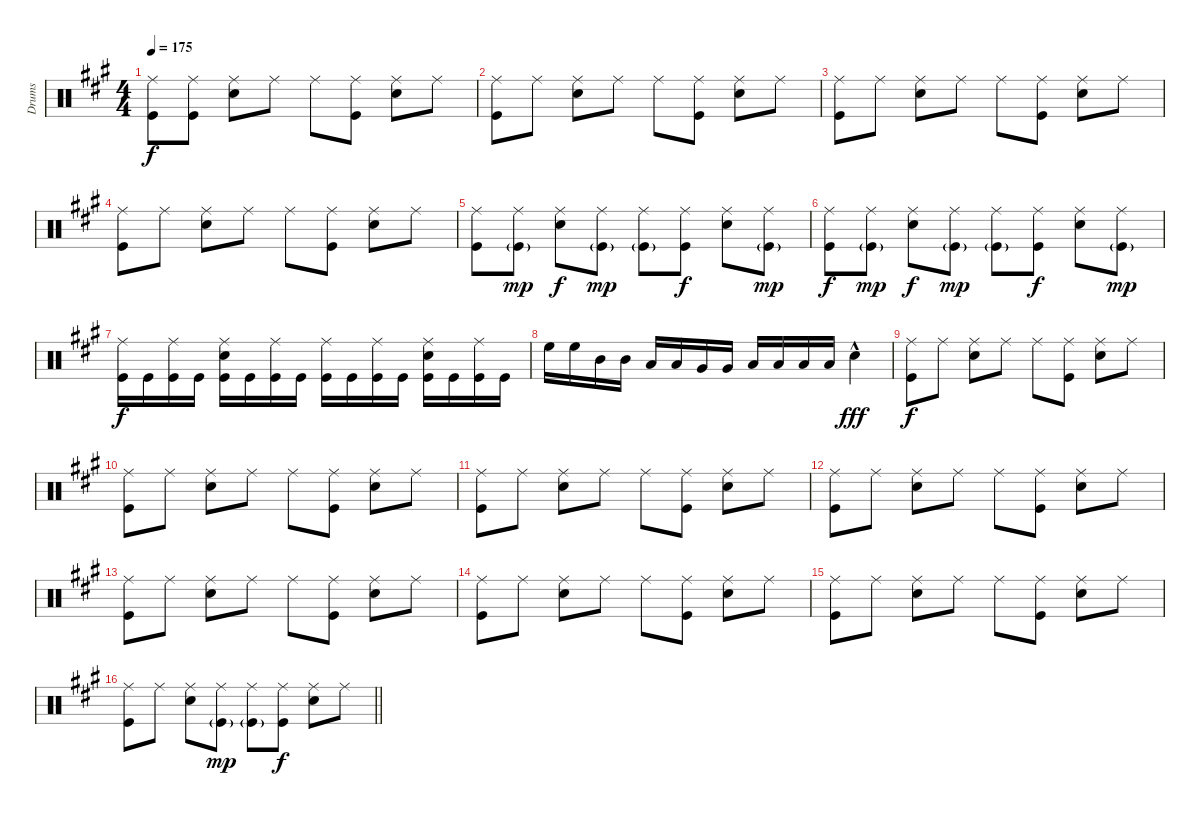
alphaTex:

\track ("Drums" "Drums") {instrument percussion}
\staff {score}
\articulation defaults
\ts (4 4)
\tempo 175
\clef neutral
\ks f#minor
("Ride (middle)" "Kick (hit)").8{dy f} ("Ride (middle)" "Kick (hit)").8 ("Ride (middle)" "Snare (hit) 2").8 "Ride (middle)".8 "Ride (middle)".8 ("Ride (middle)" "Kick (hit)").8 ("Ride (middle)" "Snare (hit) 2").8 "Ride (middle)".8 |
("Ride (middle)" "Kick (hit)").8 "Ride (middle)".8 ("Ride (middle)" "Snare (hit) 2").8 "Ride (middle)".8 "Ride (middle)".8 ("Ride (middle)" "Kick (hit)").8 ("Ride (middle)" "Snare (hit) 2").8 "Ride (middle)".8 |
("Ride (middle)" "Kick (hit)").8 "Ride (middle)".8 ("Ride (middle)" "Snare (hit) 2").8 "Ride (middle)".8 "Ride (middle)".8 ("Ride (middle)" "Kick (hit)").8 ("Ride (middle)" "Snare (hit) 2").8 "Ride (middle)".8 |
("Ride (middle)" "Kick (hit)").8 "Ride (middle)".8 ("Ride (middle)" "Snare (hit) 2").8 "Ride (middle)".8 "Ride (middle)".8 ("Ride (middle)" "Kick (hit)").8 ("Ride (middle)" "Snare (hit) 2").8 "Ride (middle)".8 |
("Ride (middle)" "Kick (hit)").8 ("Ride (middle)" "Kick (hit)"{g}).8{dy mp} ("Ride (middle)" "Snare (hit) 2").8{dy f} ("Ride (middle)" "Kick (hit)"{g}).8{dy mp} ("Ride (middle)" "Kick (hit)"{g}).8 ("Ride (middle)" "Kick (hit)").8{dy f} ("Ride (middle)" "Snare (hit) 2").8 ("Ride (middle)" "Kick (hit)"{g}).8{dy mp} |
("Ride (middle)" "Kick (hit)").8{dy f} ("Ride (middle)" "Kick (hit)"{g}).8{dy mp} ("Ride (middle)" "Snare (hit) 2").8{dy f} ("Ride (middle)" "Kick (hit)"{g}).8{dy mp} ("Ride (middle)" "Kick (hit)"{g}).8 ("Ride (middle)" "Kick (hit)").8{dy f} ("Ride (middle)" "Snare (hit) 2").8 ("Ride (middle)" "Kick (hit)"{g}).8{dy mp} |
("Ride (middle)" "Kick (hit)").16{dy f} "Kick (hit)".16 ("Ride (middle)" "Kick (hit)").16 "Kick (hit)".16 ("Ride (middle)" "Snare (hit) 2" "Kick (hit)").16 "Kick (hit)".16 ("Ride (middle)" "Kick (hit)").16 "Kick (hit)".16 ("Ride (middle)" "Kick (hit)").16 "Kick (hit)".16 ("Ride (middle)" "Kick (hit)").16 "Kick (hit)".16 ("Ride (middle)" "Snare (hit) 2" "Kick (hit)").16 "Kick (hit)".16 ("Ride (middle)" "Kick (hit)").16 "Kick (hit)".16 |
"High Floor Tom (hit)".16 "High Floor Tom (hit)".16 "Mid Tom (hit)".16 "Mid Tom (hit)".16 "Low Tom (hit)".16 "Low Tom (hit)".16 "Very Low Tom (hit)".16 "Very Low Tom (hit)".16 "Low Floor Tom (hit)".16 "Low Floor Tom (hit)".16 "Low Floor Tom (hit)".16 "Low Floor Tom (hit)".16 "Snare (hit) 2"{hac}.4{dy fff} |
("Ride (middle)" "Kick (hit)").8{dy f} "Ride (middle)".8 ("Ride (middle)" "Snare (hit) 2").8 "Ride (middle)".8 "Ride (middle)".8 ("Ride (middle)" "Kick (hit)").8 ("Ride (middle)" "Snare (hit) 2").8 "Ride (middle)".8 |
("Ride (middle)" "Kick (hit)").8 "Ride (middle)".8 ("Ride (middle)" "Snare (hit) 2").8 "Ride (middle)".8 "Ride (middle)".8 ("Ride (middle)" "Kick (hit)").8 ("Ride (middle)" "Snare (hit) 2").8 "Ride (middle)".8 |
("Ride (middle)" "Kick (hit)").8 "Ride (middle)".8 ("Ride (middle)" "Snare (hit) 2").8 "Ride (middle)".8 "Ride (middle)".8 ("Ride (middle)" "Kick (hit)").8 ("Ride (middle)" "Snare (hit) 2").8 "Ride (middle)".8 |
("Ride (middle)" "Kick (hit)").8 "Ride (middle)".8 ("Ride (middle)" "Snare (hit) 2").8 "Ride (middle)".8 "Ride (middle)".8 ("Ride (middle)" "Kick (hit)").8 ("Ride (middle)" "Snare (hit) 2").8 "Ride (middle)".8 |
("Ride (middle)" "Kick (hit)").8 "Ride (middle)".8 ("Ride (middle)" "Snare (hit) 2").8 "Ride (middle)".8 "Ride (middle)".8 ("Ride (middle)" "Kick (hit)").8 ("Ride (middle)" "Snare (hit) 2").8 "Ride (middle)".8 |
("Ride (middle)" "Kick (hit)").8 "Ride (middle)".8 ("Ride (middle)" "Snare (hit) 2").8 "Ride (middle)".8 "Ride (middle)".8 ("Ride (middle)" "Kick (hit)").8 ("Ride (middle)" "Snare (hit) 2").8 "Ride (middle)".8 |
("Ride (middle)" "Kick (hit)").8 "Ride (middle)".8 ("Ride (middle)" "Snare (hit) 2").8 "Ride (middle)".8 "Ride (middle)".8 ("Ride (middle)" "Kick (hit)").8 ("Ride (middle)" "Snare (hit) 2").8 "Ride (middle)".8 |
\barLineRight lightlight
("Ride (middle)" "Kick (hit)").8 "Ride (middle)".8 ("Ride (middle)" "Snare (hit) 2").8 ("Ride (middle)" "Kick (hit)"{g}).8{dy mp} ("Ride (middle)" "Kick (hit)"{g}).8 ("Ride (middle)" "Kick (hit)").8{dy f} ("Ride (middle)" "Snare (hit) 2").8 "Ride (middle)".8
